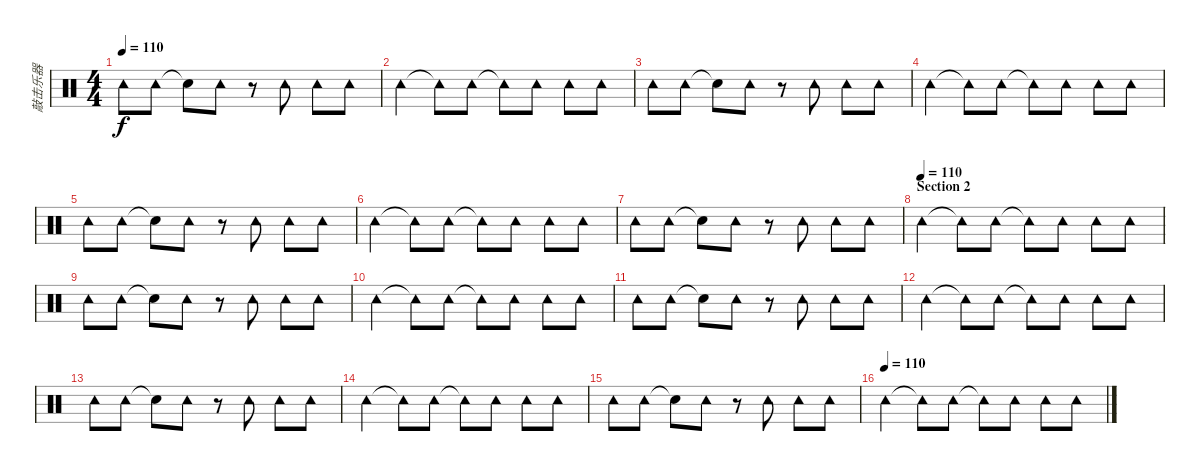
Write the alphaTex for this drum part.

\track ("敲击乐器" "敲击乐器") {instrument percussion}
\staff {score}
\articulation defaults
\ts (4 4)
\tempo 110
\clef neutral
\ks c "Tambourine (hit)".8{dy f} "Tambourine (hit)".8 "Snare (hit)"{t}.8 "Tambourine (hit)".8
r.8 "Tambourine (hit)".8 "Tambourine (hit)".8 "Tambourine (hit)".8 |
"Tambourine (hit)".4 "Tambourine (hit)"{t}.8 "Tambourine (hit)".8 "Tambourine (hit)"{t}.8 "Tambourine (hit)".8 "Tambourine (hit)".8 "Tambourine (hit)".8 |
"Tambourine (hit)".8 "Tambourine (hit)".8 "Snare (hit)"{t}.8 "Tambourine (hit)".8 r.8 "Tambourine (hit)".8 "Tambourine (hit)".8 "Tambourine (hit)".8 |
"Tambourine (hit)".4 "Tambourine (hit)"{t}.8 "Tambourine (hit)".8 "Tambourine (hit)"{t}.8 "Tambourine (hit)".8 "Tambourine (hit)".8 "Tambourine (hit)".8 |
"Tambourine (hit)".8 "Tambourine (hit)".8 "Snare (hit)"{t}.8 "Tambourine (hit)".8 r.8 "Tambourine (hit)".8 "Tambourine (hit)".8 "Tambourine (hit)".8 |
"Tambourine (hit)".4 "Tambourine (hit)"{t}.8 "Tambourine (hit)".8 "Tambourine (hit)"{t}.8 "Tambourine (hit)".8 "Tambourine (hit)".8 "Tambourine (hit)".8 |
"Tambourine (hit)".8 "Tambourine (hit)".8 "Snare (hit)"{t}.8 "Tambourine (hit)".8 r.8 "Tambourine (hit)".8 "Tambourine (hit)".8 "Tambourine (hit)".8 |
\section ("" "Section 2")
\tempo (110)
"Tambourine (hit)".4 "Tambourine (hit)"{t}.8 "Tambourine (hit)".8 "Tambourine (hit)"{t}.8 "Tambourine (hit)".8 "Tambourine (hit)".8 "Tambourine (hit)".8 |
"Tambourine (hit)".8 "Tambourine (hit)".8 "Snare (hit)"{t}.8 "Tambourine (hit)".8 r.8 "Tambourine (hit)".8 "Tambourine (hit)".8 "Tambourine (hit)".8 |
"Tambourine (hit)".4 "Tambourine (hit)"{t}.8 "Tambourine (hit)".8 "Tambourine (hit)"{t}.8 "Tambourine (hit)".8 "Tambourine (hit)".8 "Tambourine (hit)".8 |
"Tambourine (hit)".8 "Tambourine (hit)".8 "Snare (hit)"{t}.8 "Tambourine (hit)".8 r.8 "Tambourine (hit)".8 "Tambourine (hit)".8 "Tambourine (hit)".8 |
"Tambourine (hit)".4 "Tambourine (hit)"{t}.8 "Tambourine (hit)".8 "Tambourine (hit)"{t}.8 "Tambourine (hit)".8 "Tambourine (hit)".8 "Tambourine (hit)".8 |
"Tambourine (hit)".8 "Tambourine (hit)".8 "Snare (hit)"{t}.8 "Tambourine (hit)".8 r.8 "Tambourine (hit)".8 "Tambourine (hit)".8 "Tambourine (hit)".8 |
"Tambourine (hit)".4 "Tambourine (hit)"{t}.8 "Tambourine (hit)".8 "Tambourine (hit)"{t}.8 "Tambourine (hit)".8 "Tambourine (hit)".8 "Tambourine (hit)".8 |
"Tambourine (hit)".8 "Tambourine (hit)".8 "Snare (hit)"{t}.8 "Tambourine (hit)".8 r.8 "Tambourine (hit)".8 "Tambourine (hit)".8 "Tambourine (hit)".8 |
\tempo (110)
"Tambourine (hit)".4 "Tambourine (hit)"{t}.8 "Tambourine (hit)".8 "Tambourine (hit)"{t}.8 "Tambourine (hit)".8 "Tambourine (hit)".8 "Tambourine (hit)".8
